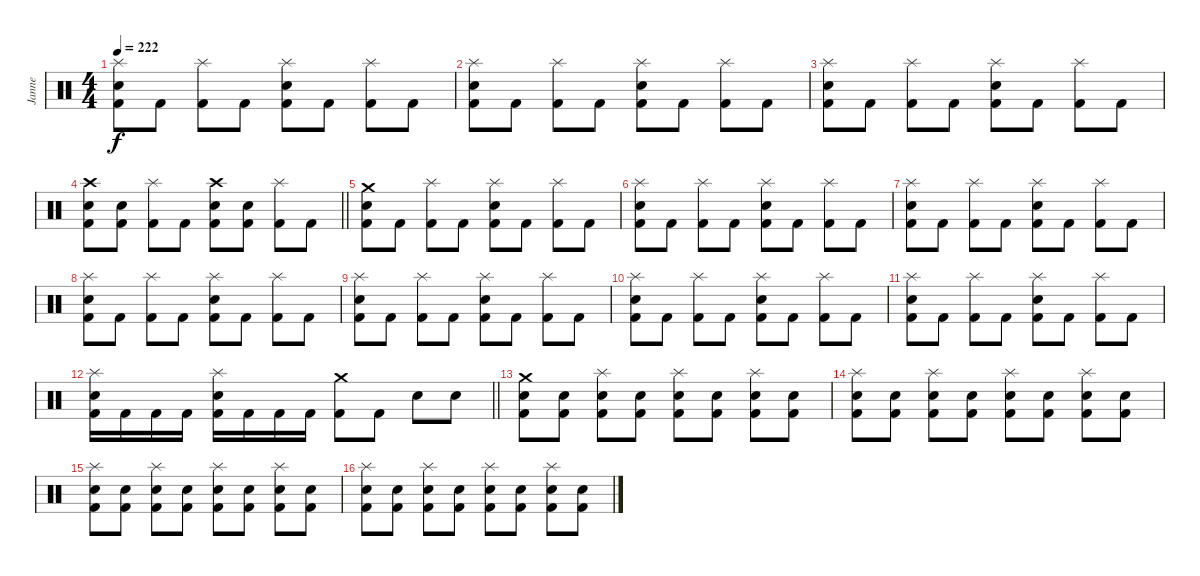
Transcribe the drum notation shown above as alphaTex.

\track ("Janne" "Janne") {instrument percussion}
\staff {score}
\articulation defaults
\ts (4 4)
\tempo 222
\clef neutral
\ks c
("Kick (hit) 2" "Electric Snare (hit)" "Splash (hit)").8{dy f} "Kick (hit) 2".8 ("Kick (hit) 2" "Splash (hit)").8 "Kick (hit) 2".8 ("Kick (hit) 2" "Electric Snare (hit)" "Splash (hit)").8 "Kick (hit) 2".8 ("Kick (hit) 2" "Splash (hit)").8 "Kick (hit) 2".8 |
("Kick (hit) 2" "Electric Snare (hit)" "Splash (hit)").8 "Kick (hit) 2".8 ("Kick (hit) 2" "Splash (hit)").8 "Kick (hit) 2".8 ("Kick (hit) 2" "Electric Snare (hit)" "Splash (hit)").8 "Kick (hit) 2".8 ("Kick (hit) 2" "Splash (hit)").8 "Kick (hit) 2".8 |
("Kick (hit) 2" "Electric Snare (hit)" "Splash (hit)").8 "Kick (hit) 2".8 ("Kick (hit) 2" "Splash (hit)").8 "Kick (hit) 2".8 ("Kick (hit) 2" "Electric Snare (hit)" "Splash (hit)").8 "Kick (hit) 2".8 ("Kick (hit) 2" "Splash (hit)").8 "Kick (hit) 2".8 |
\barLineRight lightlight
("Kick (hit) 2" "Electric Snare (hit)" "Crash high (hit)").8 ("Kick (hit) 2" "Electric Snare (hit)").8 ("Kick (hit) 2" "Splash (hit)").8 "Kick (hit) 2".8 ("Kick (hit) 2" "Electric Snare (hit)" "Crash high (hit)").8 ("Kick (hit) 2" "Electric Snare (hit)").8 ("Kick (hit) 2" "Splash (hit)").8 "Kick (hit) 2".8 |
\section ("" "")
("Kick (hit) 2" "Electric Snare (hit)" "Crash medium (hit)").8 "Kick (hit) 2".8 ("Kick (hit) 2" "Splash (hit)").8 "Kick (hit) 2".8 ("Kick (hit) 2" "Electric Snare (hit)" "Splash (hit)").8 "Kick (hit) 2".8 ("Kick (hit) 2" "Splash (hit)").8 "Kick (hit) 2".8 |
("Kick (hit) 2" "Electric Snare (hit)" "Splash (hit)").8 "Kick (hit) 2".8 ("Kick (hit) 2" "Splash (hit)").8 "Kick (hit) 2".8 ("Kick (hit) 2" "Electric Snare (hit)" "Splash (hit)").8 "Kick (hit) 2".8 ("Kick (hit) 2" "Splash (hit)").8 "Kick (hit) 2".8 |
("Kick (hit) 2" "Electric Snare (hit)" "Splash (hit)").8 "Kick (hit) 2".8 ("Kick (hit) 2" "Splash (hit)").8 "Kick (hit) 2".8 ("Kick (hit) 2" "Electric Snare (hit)" "Splash (hit)").8 "Kick (hit) 2".8 ("Kick (hit) 2" "Splash (hit)").8 "Kick (hit) 2".8 |
("Kick (hit) 2" "Electric Snare (hit)" "Splash (hit)").8 "Kick (hit) 2".8 ("Kick (hit) 2" "Splash (hit)").8 "Kick (hit) 2".8 ("Kick (hit) 2" "Electric Snare (hit)" "Splash (hit)").8 "Kick (hit) 2".8 ("Kick (hit) 2" "Splash (hit)").8 "Kick (hit) 2".8 |
("Kick (hit) 2" "Electric Snare (hit)" "Splash (hit)").8 "Kick (hit) 2".8 ("Kick (hit) 2" "Splash (hit)").8 "Kick (hit) 2".8 ("Kick (hit) 2" "Electric Snare (hit)" "Splash (hit)").8 "Kick (hit) 2".8 ("Kick (hit) 2" "Splash (hit)").8 "Kick (hit) 2".8 |
("Kick (hit) 2" "Electric Snare (hit)" "Splash (hit)").8 "Kick (hit) 2".8 ("Kick (hit) 2" "Splash (hit)").8 "Kick (hit) 2".8 ("Kick (hit) 2" "Electric Snare (hit)" "Splash (hit)").8 "Kick (hit) 2".8 ("Kick (hit) 2" "Splash (hit)").8 "Kick (hit) 2".8 |
("Kick (hit) 2" "Electric Snare (hit)" "Splash (hit)").8 "Kick (hit) 2".8 ("Kick (hit) 2" "Splash (hit)").8 "Kick (hit) 2".8 ("Kick (hit) 2" "Electric Snare (hit)" "Splash (hit)").8 "Kick (hit) 2".8 ("Kick (hit) 2" "Splash (hit)").8 "Kick (hit) 2".8 |
\barLineRight lightlight
("Kick (hit) 2" "Electric Snare (hit)" "Splash (hit)").16 "Kick (hit) 2".16 "Kick (hit) 2".16 "Kick (hit) 2".16 ("Kick (hit) 2" "Electric Snare (hit)" "Splash (hit)").16 "Kick (hit) 2".16 "Kick (hit) 2".16 "Kick (hit) 2".16 ("Kick (hit) 2" "Crash medium (hit)").8 "Kick (hit) 2".8 "Electric Snare (hit)".8 "Electric Snare (hit)".8 |
\section ("" "")
("Kick (hit) 2" "Electric Snare (hit)" "Crash medium (hit)").8 ("Kick (hit) 2" "Electric Snare (hit)").8 ("Kick (hit) 2" "Electric Snare (hit)" "Splash (hit)").8 ("Kick (hit) 2" "Electric Snare (hit)").8 ("Kick (hit) 2" "Electric Snare (hit)" "Splash (hit)").8 ("Kick (hit) 2" "Electric Snare (hit)").8 ("Kick (hit) 2" "Electric Snare (hit)" "Splash (hit)").8 ("Kick (hit) 2" "Electric Snare (hit)").8 |
("Kick (hit) 2" "Electric Snare (hit)" "Splash (hit)").8 ("Kick (hit) 2" "Electric Snare (hit)").8 ("Kick (hit) 2" "Electric Snare (hit)" "Splash (hit)").8 ("Kick (hit) 2" "Electric Snare (hit)").8 ("Kick (hit) 2" "Electric Snare (hit)" "Splash (hit)").8 ("Kick (hit) 2" "Electric Snare (hit)").8 ("Kick (hit) 2" "Electric Snare (hit)" "Splash (hit)").8 ("Kick (hit) 2" "Electric Snare (hit)").8 |
("Kick (hit) 2" "Electric Snare (hit)" "Splash (hit)").8 ("Kick (hit) 2" "Electric Snare (hit)").8 ("Kick (hit) 2" "Electric Snare (hit)" "Splash (hit)").8 ("Kick (hit) 2" "Electric Snare (hit)").8 ("Kick (hit) 2" "Electric Snare (hit)" "Splash (hit)").8 ("Kick (hit) 2" "Electric Snare (hit)").8 ("Kick (hit) 2" "Electric Snare (hit)" "Splash (hit)").8 ("Kick (hit) 2" "Electric Snare (hit)").8 |
("Kick (hit) 2" "Electric Snare (hit)" "Splash (hit)").8 ("Kick (hit) 2" "Electric Snare (hit)").8 ("Kick (hit) 2" "Electric Snare (hit)" "Splash (hit)").8 ("Kick (hit) 2" "Electric Snare (hit)").8 ("Kick (hit) 2" "Electric Snare (hit)" "Splash (hit)").8 ("Kick (hit) 2" "Electric Snare (hit)").8 ("Kick (hit) 2" "Electric Snare (hit)" "Splash (hit)").8 ("Kick (hit) 2" "Electric Snare (hit)").8
